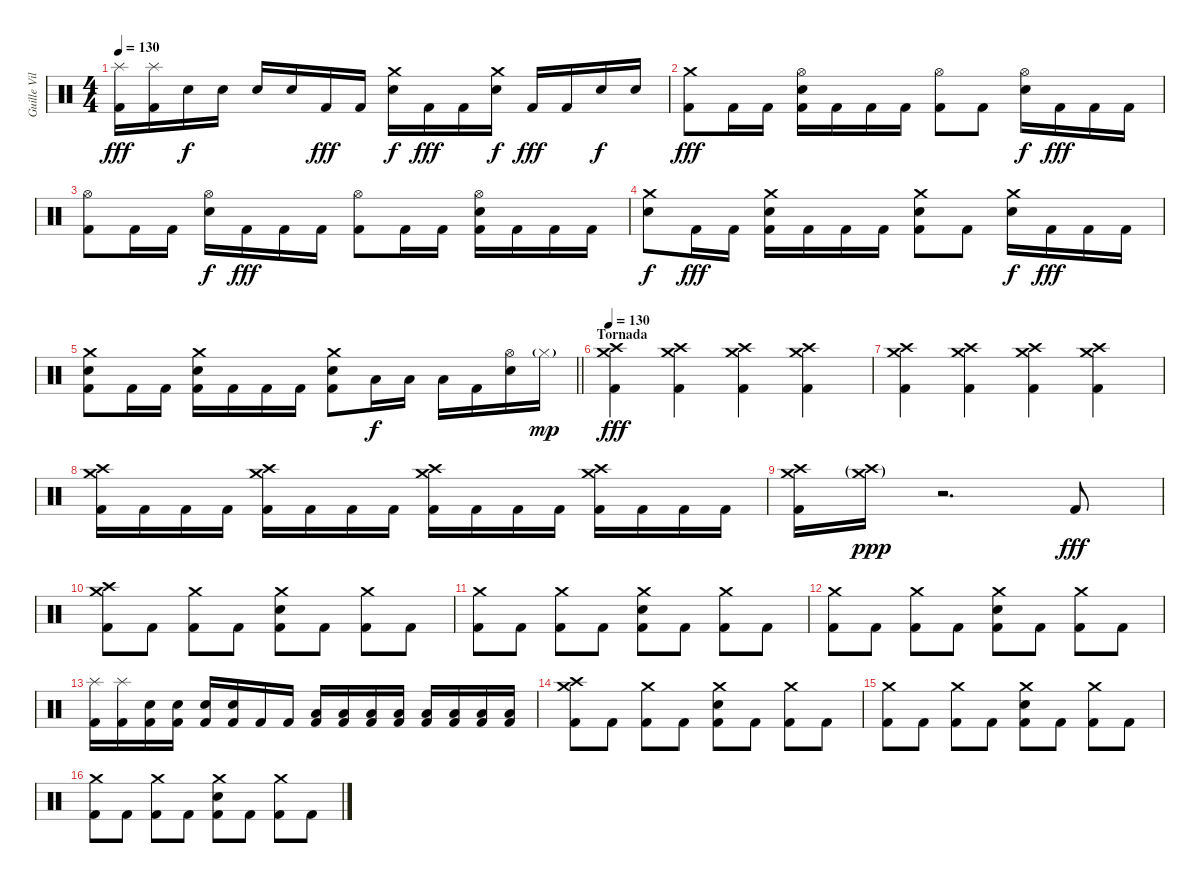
\track ("Guille Vila" "Guille Vil") {instrument percussion}
\staff {score}
\articulation defaults
\ts (4 4)
\tempo 130
\clef neutral
\ks c
("Splash (hit)" "Kick (hit) 2").16{dy fff} ("Splash (hit)" "Kick (hit) 2").16 "Snare (hit) 2".16{dy f} "Snare (hit) 2".16 "Snare (hit) 2".16 "Snare (hit) 2".16 "Kick (hit) 2".16{dy fff} "Kick (hit) 2".16 ("Crash medium (hit)" "Snare (hit) 2").16{dy f} "Kick (hit) 2".16{dy fff} "Kick (hit) 2".16 ("Crash medium (hit)" "Snare (hit) 2").16{dy f} "Kick (hit) 2".16{dy fff} "Kick (hit) 2".16 "Snare (hit) 2".16{dy f} "Snare (hit) 2".16 |
("Crash medium (hit)" "Kick (hit) 2").8{dy fff} "Kick (hit) 2".16 "Kick (hit) 2".16 ("Hi-Hat (open)" "Snare (hit) 2" "Kick (hit) 2").16 "Kick (hit) 2".16 "Kick (hit) 2".16 "Kick (hit) 2".16 ("Hi-Hat (open)" "Kick (hit) 2").8 "Kick (hit) 2".8 ("Hi-Hat (open)" "Snare (hit) 2").16{dy f} "Kick (hit) 2".16{dy fff} "Kick (hit) 2".16 "Kick (hit) 2".16 |
("Hi-Hat (open)" "Kick (hit) 2").8 "Kick (hit) 2".16 "Kick (hit) 2".16 ("Hi-Hat (open)" "Snare (hit) 2").16{dy f} "Kick (hit) 2".16{dy fff} "Kick (hit) 2".16 "Kick (hit) 2".16 ("Hi-Hat (open)" "Kick (hit) 2").8 "Kick (hit) 2".16 "Kick (hit) 2".16 ("Hi-Hat (open)" "Snare (hit) 2" "Kick (hit) 2").16 "Kick (hit) 2".16 "Kick (hit) 2".16 "Kick (hit) 2".16 |
("Crash medium (hit)" "Snare (hit) 2").8{dy f} "Kick (hit) 2".16{dy fff} "Kick (hit) 2".16 ("Crash medium (hit)" "Snare (hit) 2" "Kick (hit) 2").16 "Kick (hit) 2".16 "Kick (hit) 2".16 "Kick (hit) 2".16 ("Crash medium (hit)" "Snare (hit) 2" "Kick (hit) 2").8 "Kick (hit) 2".8 ("Crash medium (hit)" "Snare (hit) 2").16{dy f} "Kick (hit) 2".16{dy fff} "Kick (hit) 2".16 "Kick (hit) 2".16 |
\barLineRight lightlight
("Crash medium (hit)" "Snare (hit) 2" "Kick (hit) 2").8 "Kick (hit) 2".16 "Kick (hit) 2".16 ("Crash medium (hit)" "Snare (hit) 2" "Kick (hit) 2").16 "Kick (hit) 2".16 "Kick (hit) 2".16 "Kick (hit) 2".16 ("Crash medium (hit)" "Snare (hit) 2" "Kick (hit) 2").8 "Low Tom (hit)".16{dy f} "Low Tom (hit)".16 "Low Floor Tom (hit)".16 "Kick (hit) 2".16 ("Hi-Hat (open)" "Snare (hit) 2").16 "Hi-Hat (closed)"{g}.16{dy mp} |
\section ("" "Tornada")
\tempo 130
("Crash medium (hit)" "Crash high (hit)" "Kick (hit) 2").4{dy fff} ("Crash medium (hit)" "Crash high (hit)" "Kick (hit) 2").4 ("Crash medium (hit)" "Crash high (hit)" "Kick (hit) 2").4 ("Crash medium (hit)" "Crash high (hit)" "Kick (hit) 2").4 |
("Crash medium (hit)" "Crash high (hit)" "Kick (hit) 2").4 ("Crash medium (hit)" "Crash high (hit)" "Kick (hit) 2").4 ("Crash medium (hit)" "Crash high (hit)" "Kick (hit) 2").4 ("Crash medium (hit)" "Crash high (hit)" "Kick (hit) 2").4 |
("Crash high (hit)" "Crash medium (hit)" "Kick (hit) 2").16 "Kick (hit) 2".16 "Kick (hit) 2".16 "Kick (hit) 2".16 ("Crash high (hit)" "Crash medium (hit)" "Kick (hit) 2").16 "Kick (hit) 2".16 "Kick (hit) 2".16 "Kick (hit) 2".16 ("Crash high (hit)" "Crash medium (hit)" "Kick (hit) 2").16 "Kick (hit) 2".16 "Kick (hit) 2".16 "Kick (hit) 2".16 ("Crash high (hit)" "Crash medium (hit)" "Kick (hit) 2").16 "Kick (hit) 2".16 "Kick (hit) 2".16 "Kick (hit) 2".16 |
("Crash high (hit)" "Crash medium (hit)" "Kick (hit) 2").16 ("Crash high (hit)"{g} "Crash medium (hit)"{g}).16{dy ppp} r.2{d} "Kick (hit) 2".8{dy fff} |
("Crash high (hit)" "Crash medium (hit)" "Kick (hit) 2").8 "Kick (hit) 2".8 ("Crash medium (hit)" "Kick (hit) 2").8 "Kick (hit) 2".8 ("Crash medium (hit)" "Snare (hit) 2" "Kick (hit) 2").8 "Kick (hit) 2".8 ("Crash medium (hit)" "Kick (hit) 2").8 "Kick (hit) 2".8 |
("Crash medium (hit)" "Kick (hit) 2").8 "Kick (hit) 2".8 ("Crash medium (hit)" "Kick (hit) 2").8 "Kick (hit) 2".8 ("Crash medium (hit)" "Snare (hit) 2" "Kick (hit) 2").8 "Kick (hit) 2".8 ("Crash medium (hit)" "Kick (hit) 2").8 "Kick (hit) 2".8 |
("Crash medium (hit)" "Kick (hit) 2").8 "Kick (hit) 2".8 ("Crash medium (hit)" "Kick (hit) 2").8 "Kick (hit) 2".8 ("Crash medium (hit)" "Snare (hit) 2" "Kick (hit) 2").8 "Kick (hit) 2".8 ("Crash medium (hit)" "Kick (hit) 2").8 "Kick (hit) 2".8 |
("Splash (hit)" "Kick (hit) 2").16 ("Splash (hit)" "Kick (hit) 2").16 ("Snare (hit) 2" "Kick (hit) 2").16 ("Snare (hit) 2" "Kick (hit) 2").16 ("Snare (hit) 2" "Kick (hit) 2").16 ("Snare (hit) 2" "Kick (hit) 2").16 "Kick (hit) 2".16 "Kick (hit) 2".16 ("Low Tom (hit)" "Kick (hit) 2").16 ("Low Tom (hit)" "Kick (hit) 2").16 ("Low Tom (hit)" "Kick (hit) 2").16 ("Low Tom (hit)" "Kick (hit) 2").16 ("Low Floor Tom (hit)" "Kick (hit) 2").16 ("Low Floor Tom (hit)" "Kick (hit) 2").16 ("Low Floor Tom (hit)" "Kick (hit) 2").16 ("Low Floor Tom (hit)" "Kick (hit) 2").16 |
("Crash medium (hit)" "Crash high (hit)" "Kick (hit) 2").8 "Kick (hit) 2".8 ("Crash medium (hit)" "Kick (hit) 2").8 "Kick (hit) 2".8 ("Crash medium (hit)" "Snare (hit) 2" "Kick (hit) 2").8 "Kick (hit) 2".8 ("Crash medium (hit)" "Kick (hit) 2").8 "Kick (hit) 2".8 |
("Crash medium (hit)" "Kick (hit) 2").8 "Kick (hit) 2".8 ("Crash medium (hit)" "Kick (hit) 2").8 "Kick (hit) 2".8 ("Crash medium (hit)" "Snare (hit) 2" "Kick (hit) 2").8 "Kick (hit) 2".8 ("Crash medium (hit)" "Kick (hit) 2").8 "Kick (hit) 2".8 |
("Crash medium (hit)" "Kick (hit) 2").8 "Kick (hit) 2".8 ("Crash medium (hit)" "Kick (hit) 2").8 "Kick (hit) 2".8 ("Crash medium (hit)" "Snare (hit) 2" "Kick (hit) 2").8 "Kick (hit) 2".8 ("Crash medium (hit)" "Kick (hit) 2").8 "Kick (hit) 2".8
